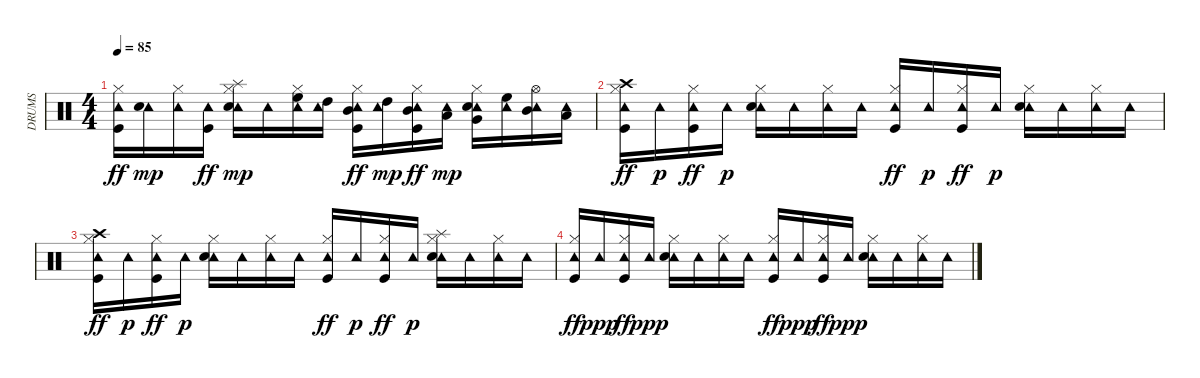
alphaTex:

\track ("DRUMS" "DRUMS") {instrument percussion}
\staff {score}
\articulation defaults
\ts (4 4)
\tempo 85
\clef neutral
\ks c
("Tambourine (hit)" "Hi-Hat (closed)" "Kick (hit)").16{dy ff} ("Tambourine (hit)" "Electric Snare (hit)").16{dy mp} ("Tambourine (hit)" "Hi-Hat (closed)").16 ("Tambourine (hit)" "Kick (hit)").16{dy ff} ("Splash (hit)" "Tambourine (hit)" "Electric Snare (hit)" "Hi-Hat (closed)").16{dy mp} "Tambourine (hit)".16 ("High Floor Tom (hit)" "Tambourine (hit)" "Hi-Hat (closed)").16 ("High Tom (hit)" "Tambourine (hit)").16 ("Mid Tom (hit)" "Tambourine (hit)" "Hi-Hat (closed)" "Kick (hit)").16{dy ff} ("High Tom (hit)" "Tambourine (hit)").16{dy mp} ("Mid Tom (hit)" "Tambourine (hit)" "Hi-Hat (closed)" "Kick (hit)").16{dy ff} ("Low Tom (hit)" "Tambourine (hit)").16{dy mp} ("Very Low Tom (hit)" "Tambourine (hit)" "Electric Snare (hit)" "Hi-Hat (closed)").16 ("High Floor Tom (hit)" "Tambourine (hit)").16 ("Mid Tom (hit)" "Tambourine (hit)" "Hi-Hat (open)").16 ("Low Floor Tom (hit)" "Tambourine (hit)").16 |
("Tambourine (hit)" "Crash high (hit)" "Hi-Hat (closed)" "Kick (hit)").16{dy ff} "Tambourine (hit)".16{dy p} ("Tambourine (hit)" "Hi-Hat (closed)" "Kick (hit)").16{dy ff} "Tambourine (hit)".16{dy p} ("Tambourine (hit)" "Electric Snare (hit)" "Hi-Hat (closed)").16 "Tambourine (hit)".16 ("Tambourine (hit)" "Hi-Hat (closed)").16 "Tambourine (hit)".16 ("Tambourine (hit)" "Hi-Hat (closed)" "Kick (hit)").16{dy ff} "Tambourine (hit)".16{dy p} ("Tambourine (hit)" "Hi-Hat (closed)" "Kick (hit)").16{dy ff} "Tambourine (hit)".16{dy p} ("Tambourine (hit)" "Electric Snare (hit)" "Hi-Hat (closed)").16 "Tambourine (hit)".16 ("Tambourine (hit)" "Hi-Hat (closed)").16 "Tambourine (hit)".16 |
("Tambourine (hit)" "Crash high (hit)" "Hi-Hat (closed)" "Kick (hit)").16{dy ff volume 0} "Tambourine (hit)".16{dy p} ("Tambourine (hit)" "Hi-Hat (closed)" "Kick (hit)").16{dy ff} "Tambourine (hit)".16{dy p} ("Tambourine (hit)" "Electric Snare (hit)" "Hi-Hat (closed)").16 "Tambourine (hit)".16 ("Tambourine (hit)" "Hi-Hat (closed)").16 "Tambourine (hit)".16 ("Tambourine (hit)" "Hi-Hat (closed)" "Kick (hit)").16{dy ff} "Tambourine (hit)".16{dy p} ("Tambourine (hit)" "Hi-Hat (closed)" "Kick (hit)").16{dy ff} "Tambourine (hit)".16{dy p} ("Tambourine (hit)" "Splash (hit)" "Electric Snare (hit)" "Hi-Hat (closed)").16 "Tambourine (hit)".16 ("Tambourine (hit)" "Hi-Hat (closed)").16 "Tambourine (hit)".16 |
("Tambourine (hit)" "Hi-Hat (closed)" "Kick (hit)").16{dy ff} "Tambourine (hit)".16{dy ppp} ("Tambourine (hit)" "Hi-Hat (closed)" "Kick (hit)").16{dy ff} "Tambourine (hit)".16{dy ppp} ("Tambourine (hit)" "Electric Snare (hit)" "Hi-Hat (closed)").16 "Tambourine (hit)".16 ("Tambourine (hit)" "Hi-Hat (closed)").16 "Tambourine (hit)".16 ("Tambourine (hit)" "Hi-Hat (closed)" "Kick (hit)").16{dy ff} "Tambourine (hit)".16{dy ppp} ("Tambourine (hit)" "Hi-Hat (closed)" "Kick (hit)").16{dy ff} "Tambourine (hit)".16{dy ppp} ("Tambourine (hit)" "Electric Snare (hit)" "Hi-Hat (closed)").16 "Tambourine (hit)".16 ("Tambourine (hit)" "Hi-Hat (closed)").16 "Tambourine (hit)".16
